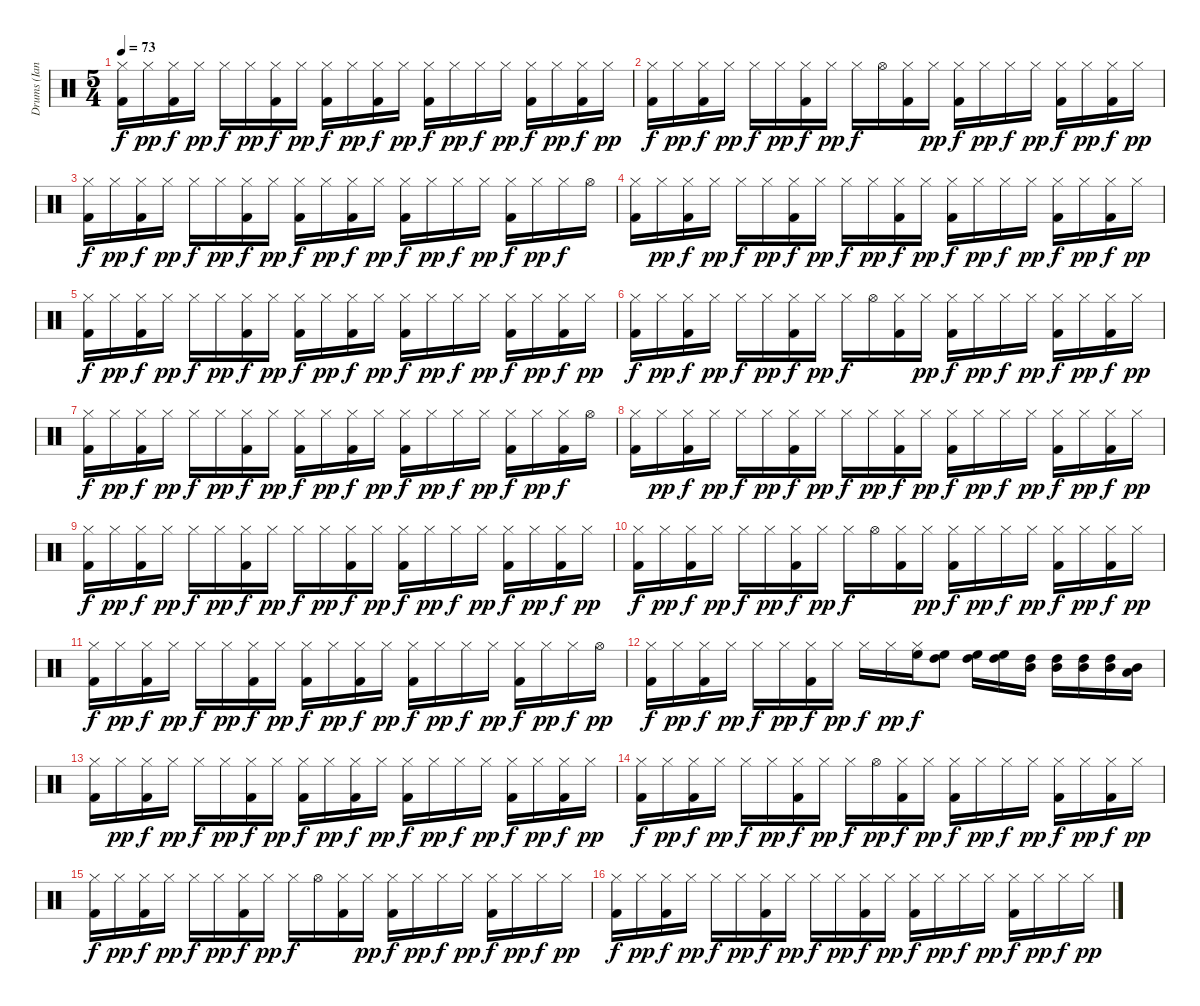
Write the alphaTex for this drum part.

\track ("Drums (Ian Mosley)" "Drums (Ian") {instrument percussion}
\staff {score}
\articulation defaults
\ts (5 4)
\tempo 73
\clef neutral
\ks c
("Kick (hit) 2" "Hi-Hat (closed)").16{dy f} "Hi-Hat (closed)".16{dy pp} ("Kick (hit) 2" "Hi-Hat (closed)").16{dy f} "Hi-Hat (closed)".16{dy pp} "Hi-Hat (closed)".16{dy f} "Hi-Hat (closed)".16{dy pp} ("Kick (hit) 2" "Hi-Hat (closed)").16{dy f} "Hi-Hat (closed)".16{dy pp} ("Kick (hit) 2" "Hi-Hat (closed)").16{dy f} "Hi-Hat (closed)".16{dy pp} ("Kick (hit) 2" "Hi-Hat (closed)").16{dy f} "Hi-Hat (closed)".16{dy pp} ("Kick (hit) 2" "Hi-Hat (closed)").16{dy f} "Hi-Hat (closed)".16{dy pp} "Hi-Hat (closed)".16{dy f} "Hi-Hat (closed)".16{dy pp} ("Kick (hit) 2" "Hi-Hat (closed)").16{dy f} "Hi-Hat (closed)".16{dy pp} ("Kick (hit) 2" "Hi-Hat (closed)").16{dy f} "Hi-Hat (closed)".16{dy pp} |
("Kick (hit) 2" "Hi-Hat (closed)").16{dy f} "Hi-Hat (closed)".16{dy pp} ("Kick (hit) 2" "Hi-Hat (closed)").16{dy f} "Hi-Hat (closed)".16{dy pp} "Hi-Hat (closed)".16{dy f} "Hi-Hat (closed)".16{dy pp} ("Kick (hit) 2" "Hi-Hat (closed)").16{dy f} "Hi-Hat (closed)".16{dy pp} "Hi-Hat (closed)".16{dy f} "Hi-Hat (open)".16 ("Kick (hit) 2" "Hi-Hat (closed)").16 "Hi-Hat (closed)".16{dy pp} ("Kick (hit) 2" "Hi-Hat (closed)").16{dy f} "Hi-Hat (closed)".16{dy pp} "Hi-Hat (closed)".16{dy f} "Hi-Hat (closed)".16{dy pp} ("Kick (hit) 2" "Hi-Hat (closed)").16{dy f} "Hi-Hat (closed)".16{dy pp} ("Kick (hit) 2" "Hi-Hat (closed)").16{dy f} "Hi-Hat (closed)".16{dy pp} |
("Kick (hit) 2" "Hi-Hat (closed)").16{dy f} "Hi-Hat (closed)".16{dy pp} ("Kick (hit) 2" "Hi-Hat (closed)").16{dy f} "Hi-Hat (closed)".16{dy pp} "Hi-Hat (closed)".16{dy f} "Hi-Hat (closed)".16{dy pp} ("Kick (hit) 2" "Hi-Hat (closed)").16{dy f} "Hi-Hat (closed)".16{dy pp} ("Kick (hit) 2" "Hi-Hat (closed)").16{dy f} "Hi-Hat (closed)".16{dy pp} ("Kick (hit) 2" "Hi-Hat (closed)").16{dy f} "Hi-Hat (closed)".16{dy pp} ("Kick (hit) 2" "Hi-Hat (closed)").16{dy f} "Hi-Hat (closed)".16{dy pp} "Hi-Hat (closed)".16{dy f} "Hi-Hat (closed)".16{dy pp} ("Kick (hit) 2" "Hi-Hat (closed)").16{dy f} "Hi-Hat (closed)".16{dy pp} "Hi-Hat (closed)".16{dy f} "Hi-Hat (open)".16 |
("Kick (hit) 2" "Hi-Hat (closed)").16 "Hi-Hat (closed)".16{dy pp} ("Kick (hit) 2" "Hi-Hat (closed)").16{dy f} "Hi-Hat (closed)".16{dy pp} "Hi-Hat (closed)".16{dy f} "Hi-Hat (closed)".16{dy pp} ("Kick (hit) 2" "Hi-Hat (closed)").16{dy f} "Hi-Hat (closed)".16{dy pp} "Hi-Hat (closed)".16{dy f} "Hi-Hat (closed)".16{dy pp} ("Kick (hit) 2" "Hi-Hat (closed)").16{dy f} "Hi-Hat (closed)".16{dy pp} ("Kick (hit) 2" "Hi-Hat (closed)").16{dy f} "Hi-Hat (closed)".16{dy pp} "Hi-Hat (closed)".16{dy f} "Hi-Hat (closed)".16{dy pp} ("Kick (hit) 2" "Hi-Hat (closed)").16{dy f} "Hi-Hat (closed)".16{dy pp} ("Kick (hit) 2" "Hi-Hat (closed)").16{dy f} "Hi-Hat (closed)".16{dy pp} |
("Kick (hit) 2" "Hi-Hat (closed)").16{dy f} "Hi-Hat (closed)".16{dy pp} ("Kick (hit) 2" "Hi-Hat (closed)").16{dy f} "Hi-Hat (closed)".16{dy pp} "Hi-Hat (closed)".16{dy f} "Hi-Hat (closed)".16{dy pp} ("Kick (hit) 2" "Hi-Hat (closed)").16{dy f} "Hi-Hat (closed)".16{dy pp} ("Kick (hit) 2" "Hi-Hat (closed)").16{dy f} "Hi-Hat (closed)".16{dy pp} ("Kick (hit) 2" "Hi-Hat (closed)").16{dy f} "Hi-Hat (closed)".16{dy pp} ("Kick (hit) 2" "Hi-Hat (closed)").16{dy f} "Hi-Hat (closed)".16{dy pp} "Hi-Hat (closed)".16{dy f} "Hi-Hat (closed)".16{dy pp} ("Kick (hit) 2" "Hi-Hat (closed)").16{dy f} "Hi-Hat (closed)".16{dy pp} ("Kick (hit) 2" "Hi-Hat (closed)").16{dy f} "Hi-Hat (closed)".16{dy pp} |
("Kick (hit) 2" "Hi-Hat (closed)").16{dy f} "Hi-Hat (closed)".16{dy pp} ("Kick (hit) 2" "Hi-Hat (closed)").16{dy f} "Hi-Hat (closed)".16{dy pp} "Hi-Hat (closed)".16{dy f} "Hi-Hat (closed)".16{dy pp} ("Kick (hit) 2" "Hi-Hat (closed)").16{dy f} "Hi-Hat (closed)".16{dy pp} "Hi-Hat (closed)".16{dy f} "Hi-Hat (open)".16 ("Kick (hit) 2" "Hi-Hat (closed)").16 "Hi-Hat (closed)".16{dy pp} ("Kick (hit) 2" "Hi-Hat (closed)").16{dy f} "Hi-Hat (closed)".16{dy pp} "Hi-Hat (closed)".16{dy f} "Hi-Hat (closed)".16{dy pp} ("Kick (hit) 2" "Hi-Hat (closed)").16{dy f} "Hi-Hat (closed)".16{dy pp} ("Kick (hit) 2" "Hi-Hat (closed)").16{dy f} "Hi-Hat (closed)".16{dy pp} |
("Kick (hit) 2" "Hi-Hat (closed)").16{dy f} "Hi-Hat (closed)".16{dy pp} ("Kick (hit) 2" "Hi-Hat (closed)").16{dy f} "Hi-Hat (closed)".16{dy pp} "Hi-Hat (closed)".16{dy f} "Hi-Hat (closed)".16{dy pp} ("Kick (hit) 2" "Hi-Hat (closed)").16{dy f} "Hi-Hat (closed)".16{dy pp} ("Kick (hit) 2" "Hi-Hat (closed)").16{dy f} "Hi-Hat (closed)".16{dy pp} ("Kick (hit) 2" "Hi-Hat (closed)").16{dy f} "Hi-Hat (closed)".16{dy pp} ("Kick (hit) 2" "Hi-Hat (closed)").16{dy f} "Hi-Hat (closed)".16{dy pp} "Hi-Hat (closed)".16{dy f} "Hi-Hat (closed)".16{dy pp} ("Kick (hit) 2" "Hi-Hat (closed)").16{dy f} "Hi-Hat (closed)".16{dy pp} ("Kick (hit) 2" "Hi-Hat (closed)").16{dy f} "Hi-Hat (open)".16 |
("Kick (hit) 2" "Hi-Hat (closed)").16 "Hi-Hat (closed)".16{dy pp} ("Kick (hit) 2" "Hi-Hat (closed)").16{dy f} "Hi-Hat (closed)".16{dy pp} "Hi-Hat (closed)".16{dy f} "Hi-Hat (closed)".16{dy pp} ("Kick (hit) 2" "Hi-Hat (closed)").16{dy f} "Hi-Hat (closed)".16{dy pp} "Hi-Hat (closed)".16{dy f} "Hi-Hat (closed)".16{dy pp} ("Kick (hit) 2" "Hi-Hat (closed)").16{dy f} "Hi-Hat (closed)".16{dy pp} ("Kick (hit) 2" "Hi-Hat (closed)").16{dy f} "Hi-Hat (closed)".16{dy pp} "Hi-Hat (closed)".16{dy f} "Hi-Hat (closed)".16{dy pp} ("Kick (hit) 2" "Hi-Hat (closed)").16{dy f} "Hi-Hat (closed)".16{dy pp} ("Kick (hit) 2" "Hi-Hat (closed)").16{dy f} "Hi-Hat (closed)".16{dy pp} |
("Kick (hit) 2" "Hi-Hat (closed)").16{dy f} "Hi-Hat (closed)".16{dy pp} ("Kick (hit) 2" "Hi-Hat (closed)").16{dy f} "Hi-Hat (closed)".16{dy pp} "Hi-Hat (closed)".16{dy f} "Hi-Hat (closed)".16{dy pp} ("Kick (hit) 2" "Hi-Hat (closed)").16{dy f} "Hi-Hat (closed)".16{dy pp} "Hi-Hat (closed)".16{dy f} "Hi-Hat (closed)".16{dy pp} ("Kick (hit) 2" "Hi-Hat (closed)").16{dy f} "Hi-Hat (closed)".16{dy pp} ("Kick (hit) 2" "Hi-Hat (closed)").16{dy f} "Hi-Hat (closed)".16{dy pp} "Hi-Hat (closed)".16{dy f} "Hi-Hat (closed)".16{dy pp} ("Kick (hit) 2" "Hi-Hat (closed)").16{dy f} "Hi-Hat (closed)".16{dy pp} ("Kick (hit) 2" "Hi-Hat (closed)").16{dy f} "Hi-Hat (closed)".16{dy pp} |
("Kick (hit) 2" "Hi-Hat (closed)").16{dy f} "Hi-Hat (closed)".16{dy pp} ("Kick (hit) 2" "Hi-Hat (closed)").16{dy f} "Hi-Hat (closed)".16{dy pp} "Hi-Hat (closed)".16{dy f} "Hi-Hat (closed)".16{dy pp} ("Kick (hit) 2" "Hi-Hat (closed)").16{dy f} "Hi-Hat (closed)".16{dy pp} "Hi-Hat (closed)".16{dy f} "Hi-Hat (open)".16 ("Kick (hit) 2" "Hi-Hat (closed)").16 "Hi-Hat (closed)".16{dy pp} ("Kick (hit) 2" "Hi-Hat (closed)").16{dy f} "Hi-Hat (closed)".16{dy pp} "Hi-Hat (closed)".16{dy f} "Hi-Hat (closed)".16{dy pp} ("Kick (hit) 2" "Hi-Hat (closed)").16{dy f} "Hi-Hat (closed)".16{dy pp} ("Kick (hit) 2" "Hi-Hat (closed)").16{dy f} "Hi-Hat (closed)".16{dy pp} |
("Kick (hit) 2" "Hi-Hat (closed)").16{dy f} "Hi-Hat (closed)".16{dy pp} ("Kick (hit) 2" "Hi-Hat (closed)").16{dy f} "Hi-Hat (closed)".16{dy pp} "Hi-Hat (closed)".16{dy f} "Hi-Hat (closed)".16{dy pp} ("Kick (hit) 2" "Hi-Hat (closed)").16{dy f} "Hi-Hat (closed)".16{dy pp} ("Kick (hit) 2" "Hi-Hat (closed)").16{dy f} "Hi-Hat (closed)".16{dy pp} ("Kick (hit) 2" "Hi-Hat (closed)").16{dy f} "Hi-Hat (closed)".16{dy pp} ("Kick (hit) 2" "Hi-Hat (closed)").16{dy f} "Hi-Hat (closed)".16{dy pp} "Hi-Hat (closed)".16{dy f} "Hi-Hat (closed)".16{dy pp} ("Kick (hit) 2" "Hi-Hat (closed)").16{dy f} "Hi-Hat (closed)".16{dy pp} "Hi-Hat (closed)".16{dy f} "Hi-Hat (open)".16{dy pp} |
("Kick (hit) 2" "Hi-Hat (closed)").16{dy f} "Hi-Hat (closed)".16{dy pp} ("Kick (hit) 2" "Hi-Hat (closed)").16{dy f} "Hi-Hat (closed)".16{dy pp} "Hi-Hat (closed)".16{dy f} "Hi-Hat (closed)".16{dy pp} ("Kick (hit) 2" "Hi-Hat (closed)").16{dy f} "Hi-Hat (closed)".16{dy pp} "Hi-Hat (closed)".16{dy f} "Hi-Hat (closed)".16{dy pp} ("High Floor Tom (hit)" "Hi-Hat (closed)").16{dy f} ("High Floor Tom (hit)" "High Tom (hit)").8 ("High Floor Tom (hit)" "High Tom (hit)").16 ("High Floor Tom (hit)" "High Tom (hit)").16 ("High Tom (hit)" "Mid Tom (hit)").16 ("High Tom (hit)" "Mid Tom (hit)").16 ("High Tom (hit)" "Mid Tom (hit)").16 ("High Tom (hit)" "Mid Tom (hit)").16 ("Mid Tom (hit)" "Low Tom (hit)").16 |
("Kick (hit) 2" "Hi-Hat (closed)").16 "Hi-Hat (closed)".16{dy pp} ("Kick (hit) 2" "Hi-Hat (closed)").16{dy f} "Hi-Hat (closed)".16{dy pp} "Hi-Hat (closed)".16{dy f} "Hi-Hat (closed)".16{dy pp} ("Kick (hit) 2" "Hi-Hat (closed)").16{dy f} "Hi-Hat (closed)".16{dy pp} ("Kick (hit) 2" "Hi-Hat (closed)").16{dy f} "Hi-Hat (closed)".16{dy pp} ("Kick (hit) 2" "Hi-Hat (closed)").16{dy f} "Hi-Hat (closed)".16{dy pp} ("Kick (hit) 2" "Hi-Hat (closed)").16{dy f} "Hi-Hat (closed)".16{dy pp} "Hi-Hat (closed)".16{dy f} "Hi-Hat (closed)".16{dy pp} ("Kick (hit) 2" "Hi-Hat (closed)").16{dy f} "Hi-Hat (closed)".16{dy pp} ("Kick (hit) 2" "Hi-Hat (closed)").16{dy f} "Hi-Hat (closed)".16{dy pp} |
("Kick (hit) 2" "Hi-Hat (closed)").16{dy f} "Hi-Hat (closed)".16{dy pp} ("Kick (hit) 2" "Hi-Hat (closed)").16{dy f} "Hi-Hat (closed)".16{dy pp} "Hi-Hat (closed)".16{dy f} "Hi-Hat (closed)".16{dy pp} ("Kick (hit) 2" "Hi-Hat (closed)").16{dy f} "Hi-Hat (closed)".16{dy pp} "Hi-Hat (closed)".16{dy f} "Hi-Hat (open)".16{dy pp} ("Kick (hit) 2" "Hi-Hat (closed)").16{dy f} "Hi-Hat (closed)".16{dy pp} ("Kick (hit) 2" "Hi-Hat (closed)").16{dy f} "Hi-Hat (closed)".16{dy pp} "Hi-Hat (closed)".16{dy f} "Hi-Hat (closed)".16{dy pp} ("Kick (hit) 2" "Hi-Hat (closed)").16{dy f} "Hi-Hat (closed)".16{dy pp} ("Kick (hit) 2" "Hi-Hat (closed)").16{dy f} "Hi-Hat (closed)".16{dy pp} |
("Kick (hit) 2" "Hi-Hat (closed)").16{dy f} "Hi-Hat (closed)".16{dy pp} ("Kick (hit) 2" "Hi-Hat (closed)").16{dy f} "Hi-Hat (closed)".16{dy pp} "Hi-Hat (closed)".16{dy f} "Hi-Hat (closed)".16{dy pp} ("Kick (hit) 2" "Hi-Hat (closed)").16{dy f} "Hi-Hat (closed)".16{dy pp} "Hi-Hat (closed)".16{dy f} "Hi-Hat (open)".16 ("Kick (hit) 2" "Hi-Hat (closed)").16 "Hi-Hat (closed)".16{dy pp} ("Kick (hit) 2" "Hi-Hat (closed)").16{dy f} "Hi-Hat (closed)".16{dy pp} "Hi-Hat (closed)".16{dy f} "Hi-Hat (closed)".16{dy pp} ("Kick (hit) 2" "Hi-Hat (closed)").16{dy f} "Hi-Hat (closed)".16{dy pp} "Hi-Hat (closed)".16{dy f} "Hi-Hat (closed)".16{dy pp} |
("Kick (hit) 2" "Hi-Hat (closed)").16{dy f} "Hi-Hat (closed)".16{dy pp} ("Kick (hit) 2" "Hi-Hat (closed)").16{dy f} "Hi-Hat (closed)".16{dy pp} "Hi-Hat (closed)".16{dy f} "Hi-Hat (closed)".16{dy pp} ("Kick (hit) 2" "Hi-Hat (closed)").16{dy f} "Hi-Hat (closed)".16{dy pp} "Hi-Hat (closed)".16{dy f} "Hi-Hat (closed)".16{dy pp} ("Kick (hit) 2" "Hi-Hat (closed)").16{dy f} "Hi-Hat (closed)".16{dy pp} ("Kick (hit) 2" "Hi-Hat (closed)").16{dy f} "Hi-Hat (closed)".16{dy pp} "Hi-Hat (closed)".16{dy f} "Hi-Hat (closed)".16{dy pp} ("Kick (hit) 2" "Hi-Hat (closed)").16{dy f} "Hi-Hat (closed)".16{dy pp} "Hi-Hat (closed)".16{dy f} "Hi-Hat (closed)".16{dy pp}
